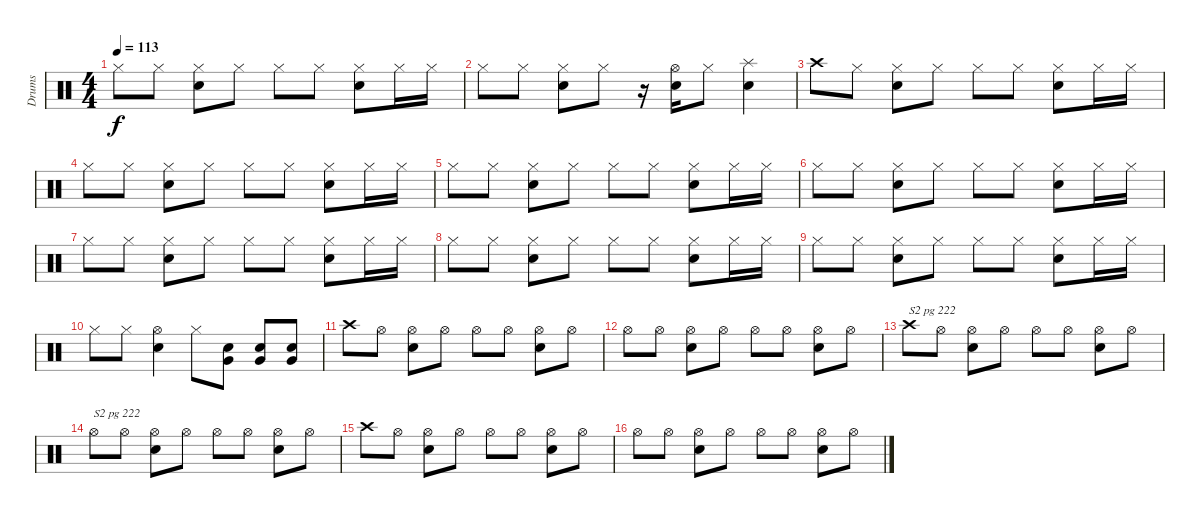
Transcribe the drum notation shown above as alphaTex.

\track ("Drums" "Drums") {instrument percussion}
\staff {score}
\articulation defaults
\ts (4 4)
\tempo 113
\clef neutral
\ks c "Hi-Hat (closed)".8{dy f} "Hi-Hat (closed)".8
("Hi-Hat (closed)" "Snare (hit) 2").8 "Hi-Hat (closed)".8 "Hi-Hat (closed)".8 "Hi-Hat (closed)".8 ("Hi-Hat (closed)" "Snare (hit) 2").8 "Hi-Hat (closed)".16 "Hi-Hat (closed)".16 |
"Hi-Hat (closed)".8 "Hi-Hat (closed)".8 ("Hi-Hat (closed)" "Snare (hit) 2").8 "Hi-Hat (closed)".8 r.16 ("Hi-Hat (open)" "Snare (hit) 2").16 "Hi-Hat (closed)".8 ("Splash (hit)" "Snare (hit) 2").4 |
"Crash high (hit)".8 "Hi-Hat (closed)".8 ("Hi-Hat (closed)" "Snare (hit) 2").8 "Hi-Hat (closed)".8 "Hi-Hat (closed)".8 "Hi-Hat (closed)".8 ("Hi-Hat (closed)" "Snare (hit) 2").8 "Hi-Hat (closed)".16 "Hi-Hat (closed)".16 |
"Hi-Hat (closed)".8 "Hi-Hat (closed)".8 ("Hi-Hat (closed)" "Snare (hit) 2").8 "Hi-Hat (closed)".8 "Hi-Hat (closed)".8 "Hi-Hat (closed)".8 ("Hi-Hat (closed)" "Snare (hit) 2").8 "Hi-Hat (closed)".16 "Hi-Hat (closed)".16 |
"Hi-Hat (closed)".8 "Hi-Hat (closed)".8 ("Hi-Hat (closed)" "Snare (hit) 2").8 "Hi-Hat (closed)".8 "Hi-Hat (closed)".8 "Hi-Hat (closed)".8 ("Hi-Hat (closed)" "Snare (hit) 2").8 "Hi-Hat (closed)".16 "Hi-Hat (closed)".16 |
"Hi-Hat (closed)".8 "Hi-Hat (closed)".8 ("Hi-Hat (closed)" "Snare (hit) 2").8 "Hi-Hat (closed)".8 "Hi-Hat (closed)".8 "Hi-Hat (closed)".8 ("Hi-Hat (closed)" "Snare (hit) 2").8 "Hi-Hat (closed)".16 "Hi-Hat (closed)".16 |
"Hi-Hat (closed)".8 "Hi-Hat (closed)".8 ("Hi-Hat (closed)" "Snare (hit) 2").8 "Hi-Hat (closed)".8 "Hi-Hat (closed)".8 "Hi-Hat (closed)".8 ("Hi-Hat (closed)" "Snare (hit) 2").8 "Hi-Hat (closed)".16 "Hi-Hat (closed)".16 |
"Hi-Hat (closed)".8 "Hi-Hat (closed)".8 ("Hi-Hat (closed)" "Snare (hit) 2").8 "Hi-Hat (closed)".8 "Hi-Hat (closed)".8 "Hi-Hat (closed)".8 ("Hi-Hat (closed)" "Snare (hit) 2").8 "Hi-Hat (closed)".16 "Hi-Hat (closed)".16 |
"Hi-Hat (closed)".8 "Hi-Hat (closed)".8 ("Hi-Hat (closed)" "Snare (hit) 2").8 "Hi-Hat (closed)".8 "Hi-Hat (closed)".8 "Hi-Hat (closed)".8 ("Hi-Hat (closed)" "Snare (hit) 2").8 "Hi-Hat (closed)".16 "Hi-Hat (closed)".16 |
"Hi-Hat (closed)".8 "Hi-Hat (closed)".8 ("Hi-Hat (open)" "Snare (hit) 2").4 "Hi-Hat (closed)".8 ("Snare (hit) 2" "Very Low Tom (hit)").8 ("Snare (hit) 2" "Very Low Tom (hit)").8 ("Snare (hit) 2" "Very Low Tom (hit)").8 |
"Crash high (hit)".8 "Hi-Hat (open)".8 ("Hi-Hat (open)" "Snare (hit) 2").8 "Hi-Hat (open)".8 "Hi-Hat (open)".8 "Hi-Hat (open)".8 ("Hi-Hat (open)" "Snare (hit) 2").8 "Hi-Hat (open)".8 |
"Hi-Hat (open)".8 "Hi-Hat (open)".8 ("Hi-Hat (open)" "Snare (hit) 2").8 "Hi-Hat (open)".8 "Hi-Hat (open)".8 "Hi-Hat (open)".8 ("Hi-Hat (open)" "Snare (hit) 2").8 "Hi-Hat (open)".8 |
"Crash high (hit)".8{txt "S2 pg 222"} "Hi-Hat (open)".8 ("Hi-Hat (open)" "Snare (hit) 2").8 "Hi-Hat (open)".8 "Hi-Hat (open)".8 "Hi-Hat (open)".8 ("Hi-Hat (open)" "Snare (hit) 2").8 "Hi-Hat (open)".8 |
"Hi-Hat (open)".8{txt "S2 pg 222"} "Hi-Hat (open)".8 ("Hi-Hat (open)" "Snare (hit) 2").8 "Hi-Hat (open)".8 "Hi-Hat (open)".8 "Hi-Hat (open)".8 ("Hi-Hat (open)" "Snare (hit) 2").8 "Hi-Hat (open)".8 |
"Crash high (hit)".8 "Hi-Hat (open)".8 ("Hi-Hat (open)" "Snare (hit) 2").8 "Hi-Hat (open)".8 "Hi-Hat (open)".8 "Hi-Hat (open)".8 ("Hi-Hat (open)" "Snare (hit) 2").8 "Hi-Hat (open)".8 |
"Hi-Hat (open)".8 "Hi-Hat (open)".8 ("Hi-Hat (open)" "Snare (hit) 2").8 "Hi-Hat (open)".8 "Hi-Hat (open)".8 "Hi-Hat (open)".8 ("Hi-Hat (open)" "Snare (hit) 2").8 "Hi-Hat (open)".8
